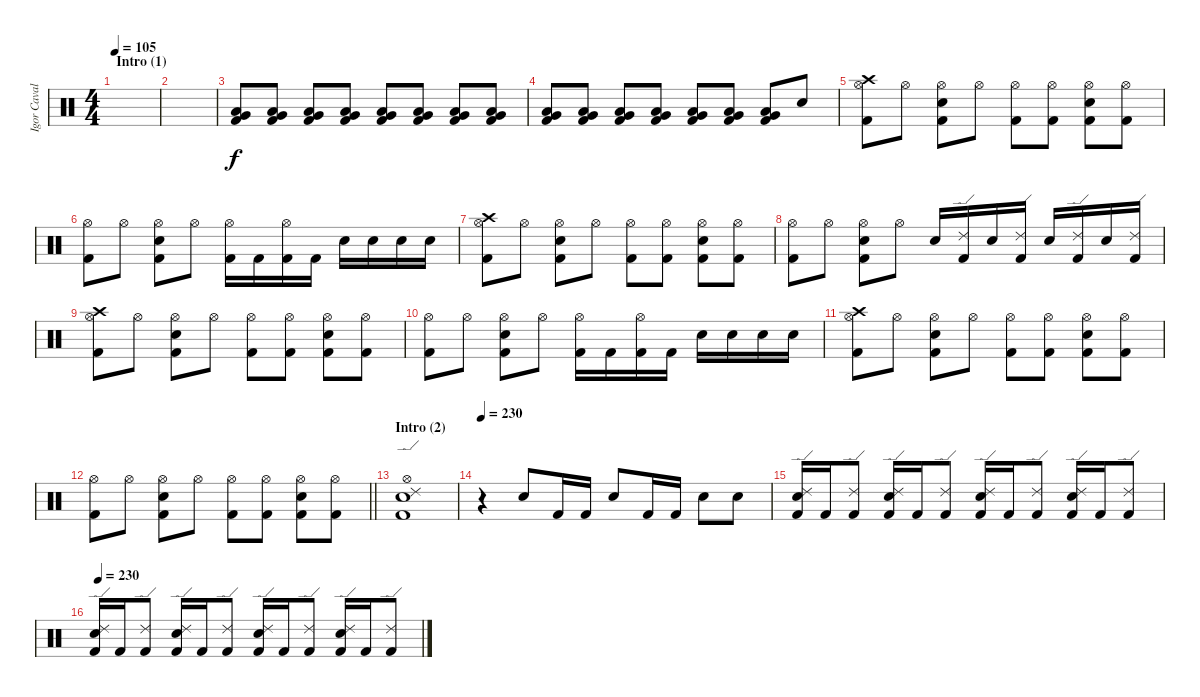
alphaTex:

\track ("Igor Cavalera" "Igor Caval") {instrument percussion}
\staff {score}
\articulation defaults
\ts (4 4)
\section ("" "Intro (1)")
\tempo 105
\clef neutral
\ks c
|
|
("Very Low Tom (hit)" "Low Floor Tom (hit)" "Kick (hit) 2").8 ("Very Low Tom (hit)" "Low Floor Tom (hit)" "Kick (hit) 2").8 ("Very Low Tom (hit)" "Low Floor Tom (hit)" "Kick (hit) 2").8 ("Very Low Tom (hit)" "Low Floor Tom (hit)" "Kick (hit) 2").8 ("Very Low Tom (hit)" "Low Floor Tom (hit)" "Kick (hit) 2").8 ("Very Low Tom (hit)" "Low Floor Tom (hit)" "Kick (hit) 2").8 ("Very Low Tom (hit)" "Low Floor Tom (hit)" "Kick (hit) 2").8 ("Very Low Tom (hit)" "Low Floor Tom (hit)" "Kick (hit) 2").8 |
("Very Low Tom (hit)" "Low Floor Tom (hit)" "Kick (hit) 2").8 ("Very Low Tom (hit)" "Low Floor Tom (hit)" "Kick (hit) 2").8 ("Very Low Tom (hit)" "Low Floor Tom (hit)" "Kick (hit) 2").8 ("Very Low Tom (hit)" "Low Floor Tom (hit)" "Kick (hit) 2").8 ("Very Low Tom (hit)" "Low Floor Tom (hit)" "Kick (hit) 2").8 ("Very Low Tom (hit)" "Low Floor Tom (hit)" "Kick (hit) 2").8 ("Very Low Tom (hit)" "Low Floor Tom (hit)" "Kick (hit) 2").8 "Electric Snare (hit)".8 |
("Crash high (hit)" "Hi-Hat (open)" "Kick (hit) 2").8 "Hi-Hat (open)".8 ("Hi-Hat (open)" "Electric Snare (hit)" "Kick (hit) 2").8 "Hi-Hat (open)".8 ("Hi-Hat (open)" "Kick (hit) 2").8 ("Hi-Hat (open)" "Kick (hit) 2").8 ("Hi-Hat (open)" "Electric Snare (hit)" "Kick (hit) 2").8 ("Hi-Hat (open)" "Kick (hit) 2").8 |
("Hi-Hat (open)" "Kick (hit) 2").8 "Hi-Hat (open)".8 ("Hi-Hat (open)" "Electric Snare (hit)" "Kick (hit) 2").8 "Hi-Hat (open)".8 ("Hi-Hat (open)" "Kick (hit) 2").16 "Kick (hit) 2".16 ("Hi-Hat (open)" "Kick (hit) 2").16 "Kick (hit) 2".16 "Electric Snare (hit)".16 "Electric Snare (hit)".16 "Electric Snare (hit)".16 "Electric Snare (hit)".16 |
("Crash high (hit)" "Hi-Hat (open)" "Kick (hit) 2").8 "Hi-Hat (open)".8 ("Hi-Hat (open)" "Electric Snare (hit)" "Kick (hit) 2").8 "Hi-Hat (open)".8 ("Hi-Hat (open)" "Kick (hit) 2").8 ("Hi-Hat (open)" "Kick (hit) 2").8 ("Hi-Hat (open)" "Electric Snare (hit)" "Kick (hit) 2").8 ("Hi-Hat (open)" "Kick (hit) 2").8 |
("Hi-Hat (open)" "Kick (hit) 2").8 "Hi-Hat (open)".8 ("Hi-Hat (open)" "Electric Snare (hit)" "Kick (hit) 2").8 "Hi-Hat (open)".8 "Electric Snare (hit)".16 ("Ride (edge) 2" "Kick (hit) 2").16 "Electric Snare (hit)".16 ("Ride (edge) 2" "Kick (hit) 2").16 "Electric Snare (hit)".16 ("Ride (edge) 2" "Kick (hit) 2").16 "Electric Snare (hit)".16 ("Ride (edge) 2" "Kick (hit) 2").16 |
("Crash high (hit)" "Hi-Hat (open)" "Kick (hit) 2").8 "Hi-Hat (open)".8 ("Hi-Hat (open)" "Electric Snare (hit)" "Kick (hit) 2").8 "Hi-Hat (open)".8 ("Hi-Hat (open)" "Kick (hit) 2").8 ("Hi-Hat (open)" "Kick (hit) 2").8 ("Hi-Hat (open)" "Electric Snare (hit)" "Kick (hit) 2").8 ("Hi-Hat (open)" "Kick (hit) 2").8 |
("Hi-Hat (open)" "Kick (hit) 2").8 "Hi-Hat (open)".8 ("Hi-Hat (open)" "Electric Snare (hit)" "Kick (hit) 2").8 "Hi-Hat (open)".8 ("Hi-Hat (open)" "Kick (hit) 2").16 "Kick (hit) 2".16 ("Hi-Hat (open)" "Kick (hit) 2").16 "Kick (hit) 2".16 "Electric Snare (hit)".16 "Electric Snare (hit)".16 "Electric Snare (hit)".16 "Electric Snare (hit)".16 |
("Crash high (hit)" "Hi-Hat (open)" "Kick (hit) 2").8 "Hi-Hat (open)".8 ("Hi-Hat (open)" "Electric Snare (hit)" "Kick (hit) 2").8 "Hi-Hat (open)".8 ("Hi-Hat (open)" "Kick (hit) 2").8 ("Hi-Hat (open)" "Kick (hit) 2").8 ("Hi-Hat (open)" "Electric Snare (hit)" "Kick (hit) 2").8 ("Hi-Hat (open)" "Kick (hit) 2").8 |
\barLineRight lightlight
("Hi-Hat (open)" "Kick (hit) 2").8 "Hi-Hat (open)".8 ("Hi-Hat (open)" "Electric Snare (hit)" "Kick (hit) 2").8 "Hi-Hat (open)".8 ("Hi-Hat (open)" "Kick (hit) 2").8 ("Hi-Hat (open)" "Kick (hit) 2").8 ("Hi-Hat (open)" "Electric Snare (hit)" "Kick (hit) 2").8 ("Hi-Hat (open)" "Kick (hit) 2").8 |
\section ("" "Intro (2)")
("Hi-Hat (open)" "Ride (edge) 2" "Electric Snare (hit)" "Kick (hit) 2").1 |
\tempo 230
r.4 "Electric Snare (hit)".8 "Kick (hit) 2".16 "Kick (hit) 2".16 "Electric Snare (hit)".8 "Kick (hit) 2".16 "Kick (hit) 2".16 "Electric Snare (hit)".8 "Electric Snare (hit)".8 |
("Ride (edge) 2" "Electric Snare (hit)" "Kick (hit) 2").16 "Kick (hit) 2".16 ("Ride (edge) 2" "Kick (hit) 2").8 ("Ride (edge) 2" "Electric Snare (hit)" "Kick (hit) 2").16 "Kick (hit) 2".16 ("Ride (edge) 2" "Kick (hit) 2").8 ("Ride (edge) 2" "Electric Snare (hit)" "Kick (hit) 2").16 "Kick (hit) 2".16 ("Ride (edge) 2" "Kick (hit) 2").8 ("Ride (edge) 2" "Electric Snare (hit)" "Kick (hit) 2").16 "Kick (hit) 2".16 ("Ride (edge) 2" "Kick (hit) 2").8 |
\tempo 230
("Ride (edge) 2" "Electric Snare (hit)" "Kick (hit) 2").16 "Kick (hit) 2".16 ("Ride (edge) 2" "Kick (hit) 2").8 ("Ride (edge) 2" "Electric Snare (hit)" "Kick (hit) 2").16 "Kick (hit) 2".16 ("Ride (edge) 2" "Kick (hit) 2").8 ("Ride (edge) 2" "Electric Snare (hit)" "Kick (hit) 2").16 "Kick (hit) 2".16 ("Ride (edge) 2" "Kick (hit) 2").8 ("Ride (edge) 2" "Electric Snare (hit)" "Kick (hit) 2").16 "Kick (hit) 2".16 ("Ride (edge) 2" "Kick (hit) 2").8
